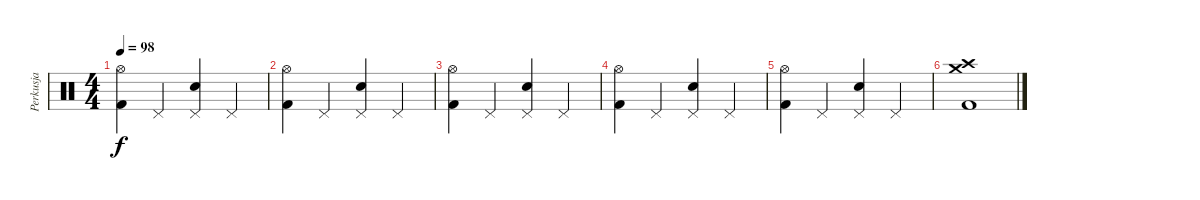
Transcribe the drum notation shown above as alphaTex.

\track ("Perkusja" "Perkusja") {instrument percussion}
\staff {score}
\articulation defaults
\ts (4 4)
\tempo 98
\clef neutral
\ks c
("Hi-Hat (open)" "Kick (hit) 2").4{dy f} "Pedal Hi-Hat (hit)".4 ("Pedal Hi-Hat (hit)" "Snare (hit) 2").4 "Pedal Hi-Hat (hit)".4 |
("Hi-Hat (open)" "Kick (hit) 2").4 "Pedal Hi-Hat (hit)".4 ("Pedal Hi-Hat (hit)" "Snare (hit) 2").4 "Pedal Hi-Hat (hit)".4 |
("Hi-Hat (open)" "Kick (hit) 2").4 "Pedal Hi-Hat (hit)".4 ("Pedal Hi-Hat (hit)" "Snare (hit) 2").4 "Pedal Hi-Hat (hit)".4 |
("Hi-Hat (open)" "Kick (hit) 2").4 "Pedal Hi-Hat (hit)".4 ("Pedal Hi-Hat (hit)" "Snare (hit) 2").4 "Pedal Hi-Hat (hit)".4 |
("Hi-Hat (open)" "Kick (hit) 2").4 "Pedal Hi-Hat (hit)".4 ("Pedal Hi-Hat (hit)" "Snare (hit) 2").4 "Pedal Hi-Hat (hit)".4 |
("Crash high (hit)" "Crash medium (hit)" "Kick (hit) 2").1
